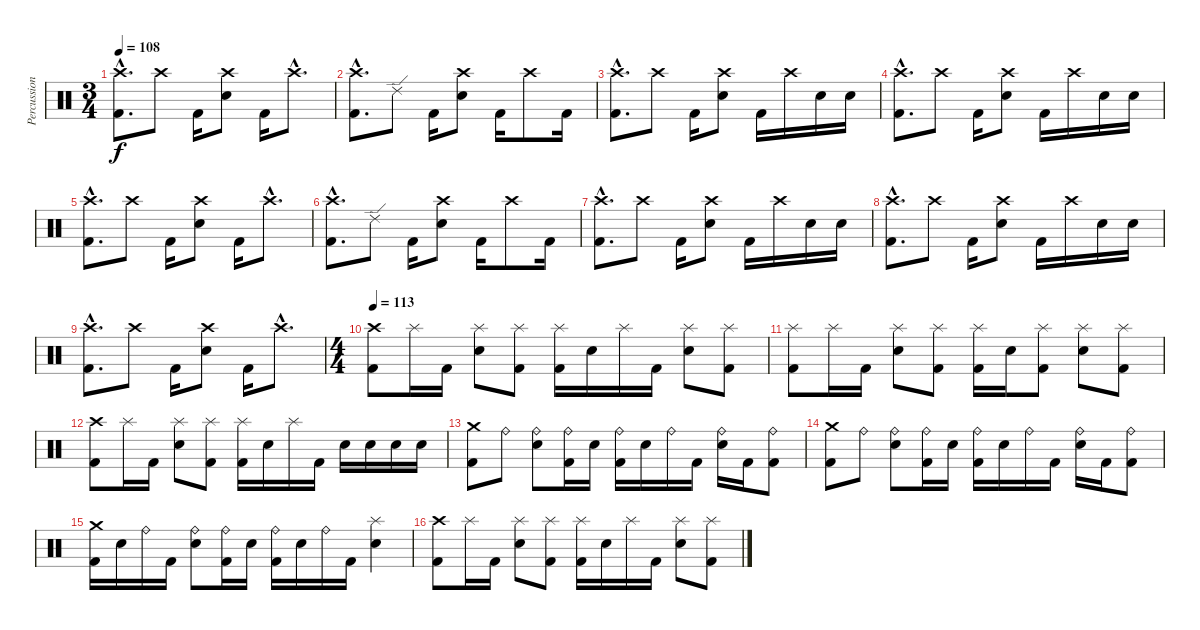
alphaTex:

\track ("Percussion" "Percussion") {instrument percussion}
\staff {score}
\articulation defaults
\ts (3 4)
\tempo 108
\clef neutral
\ks c
("Crash high (hit)"{hac} "Kick (hit) 2"{hac}).8{d dy f} "Crash high (hit)".8 "Kick (hit) 2".16 ("Crash high (hit)" "Electric Snare (hit)").8 "Kick (hit) 2".16 "Crash high (hit)"{hac}.8{d} |
("Crash high (hit)"{hac} "Kick (hit) 2"{hac}).8{d} "Ride (edge) 2".8 "Kick (hit) 2".16 ("Crash high (hit)" "Electric Snare (hit)").8 "Kick (hit) 2".16 "Crash high (hit)".8 "Kick (hit) 2".16 |
("Crash high (hit)"{hac} "Kick (hit) 2"{hac}).8{d} "Crash high (hit)".8 "Kick (hit) 2".16 ("Crash high (hit)" "Electric Snare (hit)").8 "Kick (hit) 2".16 "Crash high (hit)".16 "Electric Snare (hit)".16 "Electric Snare (hit)".16 |
("Crash high (hit)"{hac} "Kick (hit) 2"{hac}).8{d} "Crash high (hit)".8 "Kick (hit) 2".16 ("Crash high (hit)" "Electric Snare (hit)").8 "Kick (hit) 2".16 "Crash high (hit)".16 "Electric Snare (hit)".16 "Electric Snare (hit)".16 |
("Crash high (hit)"{hac} "Kick (hit) 2"{hac}).8{d} "Crash high (hit)".8 "Kick (hit) 2".16 ("Crash high (hit)" "Electric Snare (hit)").8 "Kick (hit) 2".16 "Crash high (hit)"{hac}.8{d} |
("Crash high (hit)"{hac} "Kick (hit) 2"{hac}).8{d} "Ride (edge) 2".8 "Kick (hit) 2".16 ("Crash high (hit)" "Electric Snare (hit)").8 "Kick (hit) 2".16 "Crash high (hit)".8 "Kick (hit) 2".16 |
("Crash high (hit)"{hac} "Kick (hit) 2"{hac}).8{d} "Crash high (hit)".8 "Kick (hit) 2".16 ("Crash high (hit)" "Electric Snare (hit)").8 "Kick (hit) 2".16 "Crash high (hit)".16 "Electric Snare (hit)".16 "Electric Snare (hit)".16 |
("Crash high (hit)"{hac} "Kick (hit) 2"{hac}).8{d} "Crash high (hit)".8 "Kick (hit) 2".16 ("Crash high (hit)" "Electric Snare (hit)").8 "Kick (hit) 2".16 "Crash high (hit)".16 "Electric Snare (hit)".16 "Electric Snare (hit)".16 |
("Crash high (hit)"{hac} "Kick (hit) 2"{hac}).8{d} "Crash high (hit)".8 "Kick (hit) 2".16 ("Crash high (hit)" "Electric Snare (hit)").8 "Kick (hit) 2".16 "Crash high (hit)"{hac}.8{d} |
\ts (4 4)
\tempo 113
("Crash high (hit)" "Kick (hit) 2").8 "Splash (hit)".16 "Kick (hit) 2".16 ("Splash (hit)" "Electric Snare (hit)").8 ("Splash (hit)" "Kick (hit) 2").8 ("Splash (hit)" "Kick (hit) 2").16 "Electric Snare (hit)".16 "Splash (hit)".16 "Kick (hit) 2".16 ("Splash (hit)" "Electric Snare (hit)").8 ("Splash (hit)" "Kick (hit) 2").8 |
("Splash (hit)" "Kick (hit) 2").8 "Splash (hit)".16 "Kick (hit) 2".16 ("Splash (hit)" "Electric Snare (hit)").8 ("Splash (hit)" "Kick (hit) 2").8 ("Splash (hit)" "Kick (hit) 2").16 "Electric Snare (hit)".16 ("Splash (hit)" "Kick (hit) 2").8 ("Splash (hit)" "Electric Snare (hit)").8 ("Splash (hit)" "Kick (hit) 2").8 |
("Crash high (hit)" "Kick (hit) 2").8 "Splash (hit)".16 "Kick (hit) 2".16 ("Splash (hit)" "Electric Snare (hit)").8 ("Splash (hit)" "Kick (hit) 2").8 ("Splash (hit)" "Kick (hit) 2").16 "Electric Snare (hit)".16 "Splash (hit)".16 "Kick (hit) 2".16 "Electric Snare (hit)".16 "Electric Snare (hit)".16 "Electric Snare (hit)".16 "Electric Snare (hit)".16 |
("Crash medium (hit)" "Kick (hit) 2").8 "Ride (bell)".8 ("Ride (bell)" "Electric Snare (hit)").8 ("Ride (bell)" "Kick (hit) 2").16 "Electric Snare (hit)".16 ("Ride (bell)" "Kick (hit) 2").16 "Electric Snare (hit)".16 "Ride (bell)".16 "Kick (hit) 2".16 ("Ride (bell)" "Electric Snare (hit)").16 "Kick (hit) 2".16 ("Ride (bell)" "Kick (hit) 2").8 |
("Crash medium (hit)" "Kick (hit) 2").8 "Ride (bell)".8 ("Ride (bell)" "Electric Snare (hit)").8 ("Ride (bell)" "Kick (hit) 2").16 "Electric Snare (hit)".16 ("Ride (bell)" "Kick (hit) 2").16 "Electric Snare (hit)".16 "Ride (bell)".16 "Kick (hit) 2".16 ("Ride (bell)" "Electric Snare (hit)").16 "Kick (hit) 2".16 ("Ride (bell)" "Kick (hit) 2").8 |
("Crash medium (hit)" "Kick (hit) 2").16 "Electric Snare (hit)".16 "Ride (bell)".16 "Kick (hit) 2".16 ("Ride (bell)" "Electric Snare (hit)").8 ("Ride (bell)" "Kick (hit) 2").16 "Electric Snare (hit)".16 ("Ride (bell)" "Kick (hit) 2").16 "Electric Snare (hit)".16 "Ride (bell)".16 "Kick (hit) 2".16 ("Splash (hit)" "Electric Snare (hit)").4 |
("Crash high (hit)" "Kick (hit) 2").8 "Splash (hit)".16 "Kick (hit) 2".16 ("Splash (hit)" "Electric Snare (hit)").8 ("Splash (hit)" "Kick (hit) 2").8 ("Splash (hit)" "Kick (hit) 2").16 "Electric Snare (hit)".16 "Splash (hit)".16 "Kick (hit) 2".16 ("Splash (hit)" "Electric Snare (hit)").8 ("Splash (hit)" "Kick (hit) 2").8
